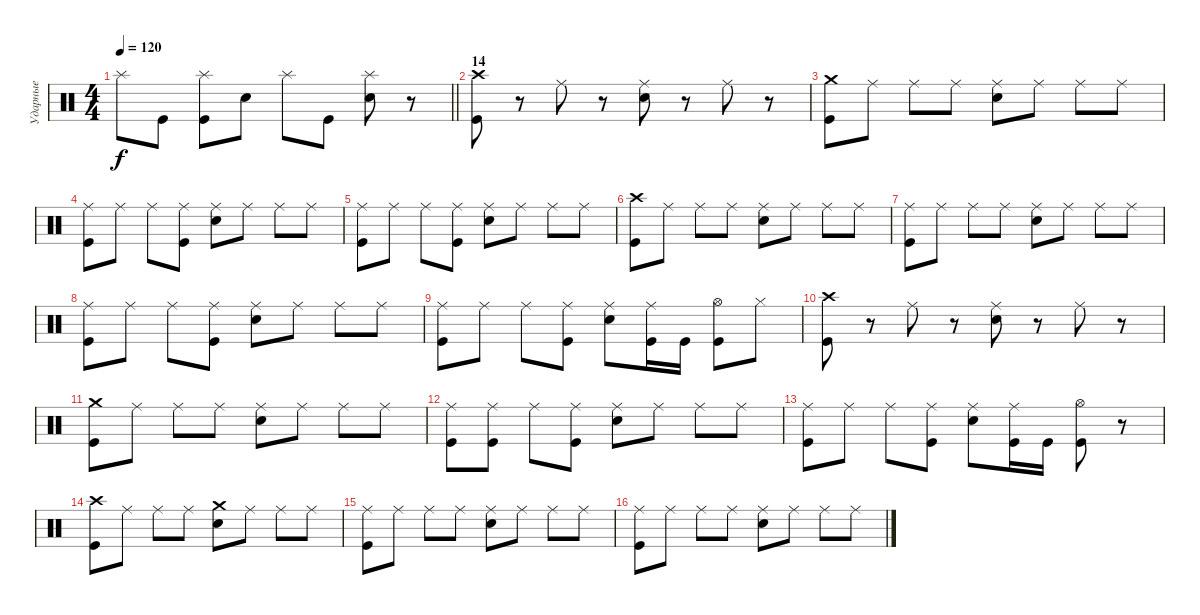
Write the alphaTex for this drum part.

\track ("Ударные" "Ударные") {instrument percussion}
\staff {score}
\articulation defaults
\ts (4 4)
\tempo 120
\clef neutral
\barLineRight lightlight
\ks c "Splash (hit)".8{dy f} "Kick (hit)".8
("Splash (hit)" "Kick (hit)").8 "Electric Snare (hit)".8 "Splash (hit)".8 "Kick (hit)".8 ("Splash (hit)" "Electric Snare (hit)").8 r.8 |
\section ("" "14")
("Crash high (hit)" "Kick (hit)").8 r.8 "Ride (middle)".8 r.8 ("Ride (middle)" "Electric Snare (hit)").8 r.8 "Ride (middle)".8 r.8 |
("Crash medium (hit)" "Kick (hit)").8 "Ride (middle)".8 "Ride (middle)".8 "Ride (middle)".8 ("Ride (middle)" "Electric Snare (hit)").8 "Ride (middle)".8 "Ride (middle)".8 "Ride (middle)".8 |
("Ride (middle)" "Kick (hit)").8 "Ride (middle)".8 "Ride (middle)".8 ("Ride (middle)" "Kick (hit)").8 ("Ride (middle)" "Electric Snare (hit)").8 "Ride (middle)".8 "Ride (middle)".8 "Ride (middle)".8 |
("Ride (middle)" "Kick (hit)").8 "Ride (middle)".8 "Ride (middle)".8 ("Ride (middle)" "Kick (hit)").8 ("Ride (middle)" "Electric Snare (hit)").8 "Ride (middle)".8 "Ride (middle)".8 "Ride (middle)".8 |
("Crash high (hit)" "Kick (hit)").8 "Ride (middle)".8 "Ride (middle)".8 "Ride (middle)".8 ("Ride (middle)" "Electric Snare (hit)").8 "Ride (middle)".8 "Ride (middle)".8 "Ride (middle)".8 |
("Ride (middle)" "Kick (hit)").8 "Ride (middle)".8 "Ride (middle)".8 "Ride (middle)".8 ("Ride (middle)" "Electric Snare (hit)").8 "Ride (middle)".8 "Ride (middle)".8 "Ride (middle)".8 |
("Ride (middle)" "Kick (hit)").8 "Ride (middle)".8 "Ride (middle)".8 ("Ride (middle)" "Kick (hit)").8 ("Ride (middle)" "Electric Snare (hit)").8 "Ride (middle)".8 "Ride (middle)".8 "Ride (middle)".8 |
("Ride (middle)" "Kick (hit)").8 "Ride (middle)".8 "Ride (middle)".8 ("Ride (middle)" "Kick (hit)").8 ("Ride (middle)" "Electric Snare (hit)").8 ("Ride (middle)" "Kick (hit)").16 "Kick (hit)".16 ("Hi-Hat (open)" "Kick (hit)").8 "Hi-Hat (closed)".8 |
("Crash high (hit)" "Kick (hit)").8 r.8 "Ride (middle)".8 r.8 ("Ride (middle)" "Electric Snare (hit)").8 r.8 "Ride (middle)".8 r.8 |
("Crash medium (hit)" "Kick (hit)").8 "Ride (middle)".8 "Ride (middle)".8 "Ride (middle)".8 ("Ride (middle)" "Electric Snare (hit)").8 "Ride (middle)".8 "Ride (middle)".8 "Ride (middle)".8 |
("Ride (middle)" "Kick (hit)").8 ("Ride (middle)" "Kick (hit)").8 "Ride (middle)".8 ("Ride (middle)" "Kick (hit)").8 ("Ride (middle)" "Electric Snare (hit)").8 "Ride (middle)".8 "Ride (middle)".8 "Ride (middle)".8 |
("Ride (middle)" "Kick (hit)").8 "Ride (middle)".8 "Ride (middle)".8 ("Ride (middle)" "Kick (hit)").8 ("Ride (middle)" "Electric Snare (hit)").8 ("Ride (middle)" "Kick (hit)").16 "Kick (hit)".16 ("Hi-Hat (open)" "Kick (hit)").8 r.8 |
("Crash high (hit)" "Kick (hit)").8 "Ride (middle)".8 "Ride (middle)".8 "Ride (middle)".8 ("Crash medium (hit)" "Electric Snare (hit)").8 "Ride (middle)".8 "Ride (middle)".8 "Ride (middle)".8 |
("Ride (middle)" "Kick (hit)").8 "Ride (middle)".8 "Ride (middle)".8 "Ride (middle)".8 ("Ride (middle)" "Electric Snare (hit)").8 "Ride (middle)".8 "Ride (middle)".8 "Ride (middle)".8 |
("Ride (middle)" "Kick (hit)").8 "Ride (middle)".8 "Ride (middle)".8 "Ride (middle)".8 ("Ride (middle)" "Electric Snare (hit)").8 "Ride (middle)".8 "Ride (middle)".8 "Ride (middle)".8
